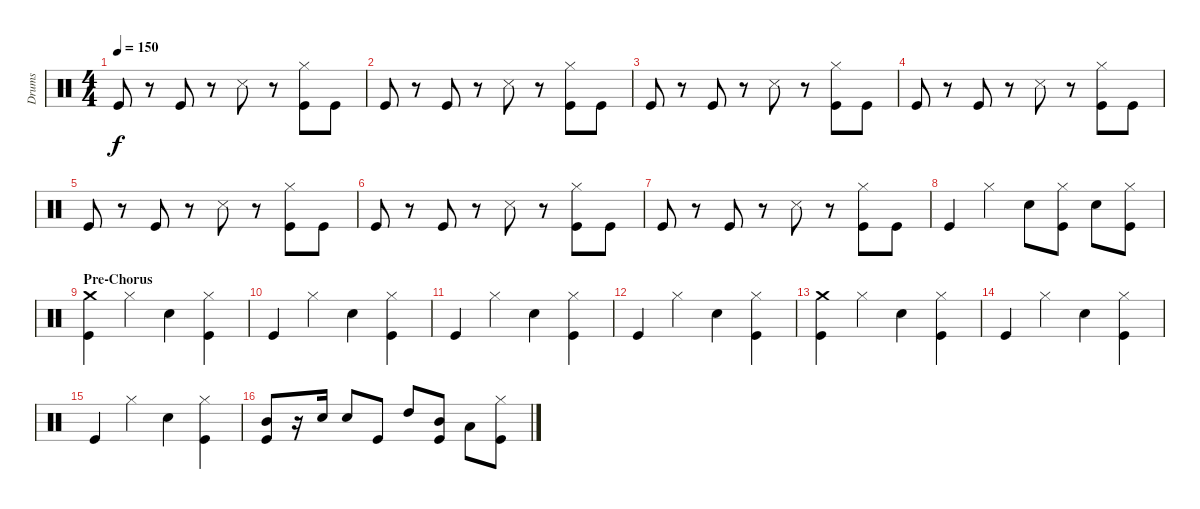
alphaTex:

\track ("Drums" "Drums") {instrument percussion}
\staff {score}
\articulation defaults
\ts (4 4)
\tempo 150
\clef neutral
\ks c "Kick (hit)".8{dy f}
r.8 "Kick (hit)".8 r.8 "Snare (side stick) 3".8 r.8 ("Hi-Hat (closed)" "Kick (hit)").8 "Kick (hit)".8 |
"Kick (hit)".8 r.8 "Kick (hit)".8 r.8 "Snare (side stick) 3".8 r.8 ("Hi-Hat (closed)" "Kick (hit)").8 "Kick (hit)".8 |
"Kick (hit)".8 r.8 "Kick (hit)".8 r.8 "Snare (side stick) 3".8 r.8 ("Hi-Hat (closed)" "Kick (hit)").8 "Kick (hit)".8 |
"Kick (hit)".8 r.8 "Kick (hit)".8 r.8 "Snare (side stick) 3".8 r.8 ("Hi-Hat (closed)" "Kick (hit)").8 "Kick (hit)".8 |
"Kick (hit)".8 r.8 "Kick (hit)".8 r.8 "Snare (side stick) 3".8 r.8 ("Hi-Hat (closed)" "Kick (hit)").8 "Kick (hit)".8 |
"Kick (hit)".8 r.8 "Kick (hit)".8 r.8 "Snare (side stick) 3".8 r.8 ("Hi-Hat (closed)" "Kick (hit)").8 "Kick (hit)".8 |
"Kick (hit)".8 r.8 "Kick (hit)".8 r.8 "Snare (side stick) 3".8 r.8 ("Hi-Hat (closed)" "Kick (hit)").8 "Kick (hit)".8 |
"Kick (hit)".4 "Hi-Hat (closed)".4 "Electric Snare (hit)".8 ("Hi-Hat (closed)" "Kick (hit)").8 "Electric Snare (hit)".8 ("Hi-Hat (closed)" "Kick (hit)").8 |
\section ("" "Pre-Chorus")
("Crash medium (hit)" "Kick (hit)").4 "Hi-Hat (closed)".4 "Electric Snare (hit)".4 ("Hi-Hat (closed)" "Kick (hit)").4 |
"Kick (hit)".4 "Hi-Hat (closed)".4 "Electric Snare (hit)".4 ("Hi-Hat (closed)" "Kick (hit)").4 |
"Kick (hit)".4 "Hi-Hat (closed)".4 "Electric Snare (hit)".4 ("Hi-Hat (closed)" "Kick (hit)").4 |
"Kick (hit)".4 "Hi-Hat (closed)".4 "Electric Snare (hit)".4 ("Hi-Hat (closed)" "Kick (hit)").4 |
("Crash medium (hit)" "Kick (hit)").4 "Hi-Hat (closed)".4 "Electric Snare (hit)".4 ("Hi-Hat (closed)" "Kick (hit)").4 |
"Kick (hit)".4 "Hi-Hat (closed)".4 "Electric Snare (hit)".4 ("Hi-Hat (closed)" "Kick (hit)").4 |
"Kick (hit)".4 "Hi-Hat (closed)".4 "Electric Snare (hit)".4 ("Hi-Hat (closed)" "Kick (hit)").4 |
("Mid Tom (hit)" "Kick (hit)").8 r.16 "Electric Snare (hit)".16 "Electric Snare (hit)".8 "Kick (hit)".8 "High Tom (hit)".8 ("Mid Tom (hit)" "Kick (hit)").8 "Low Floor Tom (hit)".8 ("Hi-Hat (closed)" "Kick (hit)").8
